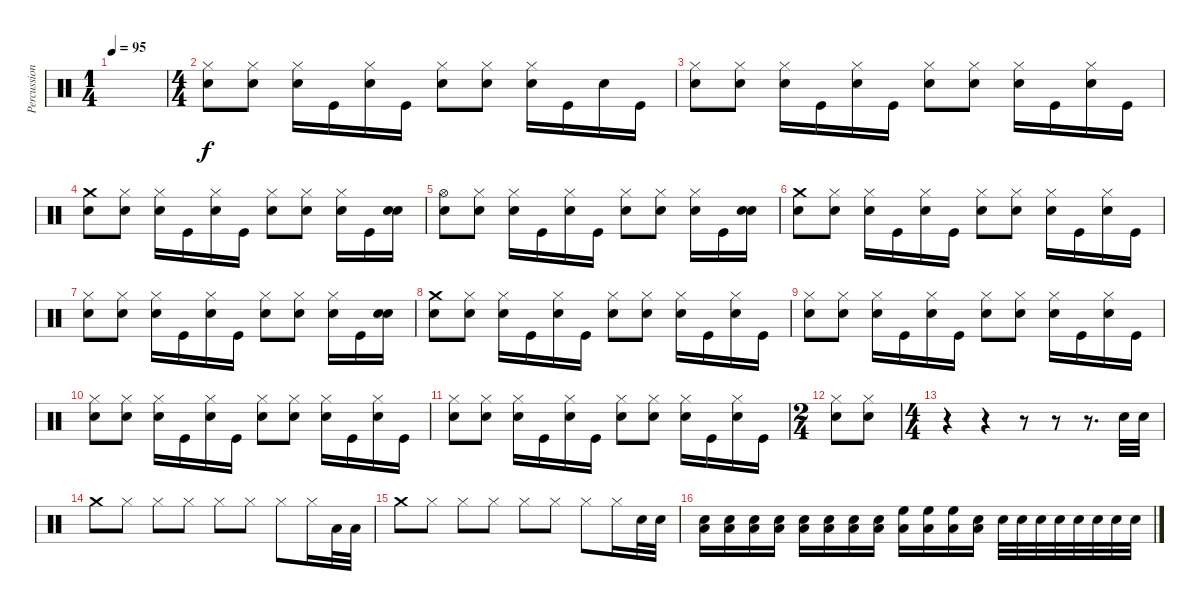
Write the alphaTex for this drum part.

\track ("Percussion" "Percussion") {instrument percussion}
\staff {score}
\articulation defaults
\ts (1 4)
\tempo 95
\clef neutral
\ks c
|
\ts (4 4)
("Hi-Hat (closed)" "Electric Snare (hit)").8{volume 3} ("Hi-Hat (closed)" "Electric Snare (hit)").8 ("Hi-Hat (closed)" "Electric Snare (hit)").16 "Kick (hit)".16 ("Hi-Hat (closed)" "Electric Snare (hit)").16 "Kick (hit)".16 ("Hi-Hat (closed)" "Electric Snare (hit)").8 ("Hi-Hat (closed)" "Electric Snare (hit)").8 ("Hi-Hat (closed)" "Electric Snare (hit)").16 "Kick (hit)".16 "Electric Snare (hit)".16 "Kick (hit)".16 |
("Hi-Hat (closed)" "Electric Snare (hit)").8 ("Hi-Hat (closed)" "Electric Snare (hit)").8 ("Hi-Hat (closed)" "Electric Snare (hit)").16 "Kick (hit)".16 ("Hi-Hat (closed)" "Electric Snare (hit)").16 "Kick (hit)".16 ("Hi-Hat (closed)" "Electric Snare (hit)").8 ("Hi-Hat (closed)" "Electric Snare (hit)").8 ("Hi-Hat (closed)" "Electric Snare (hit)").16 "Kick (hit)".16 ("Hi-Hat (closed)" "Electric Snare (hit)").16 "Kick (hit)".16 |
("Crash medium (hit)" "Electric Snare (hit)").8 ("Hi-Hat (closed)" "Electric Snare (hit)").8 ("Hi-Hat (closed)" "Electric Snare (hit)").16 "Kick (hit)".16 ("Hi-Hat (closed)" "Electric Snare (hit)").16 "Kick (hit)".16 ("Hi-Hat (closed)" "Electric Snare (hit)").8 ("Hi-Hat (closed)" "Electric Snare (hit)").8 ("Hi-Hat (closed)" "Electric Snare (hit)").16 "Kick (hit)".16 ("Electric Snare (hit)" "Electric Snare (hit)").16 |
("Hi-Hat (open)" "Electric Snare (hit)").8{volume 8} ("Hi-Hat (closed)" "Electric Snare (hit)").8 ("Hi-Hat (closed)" "Electric Snare (hit)").16 "Kick (hit)".16 ("Hi-Hat (closed)" "Electric Snare (hit)").16 "Kick (hit)".16 ("Hi-Hat (closed)" "Electric Snare (hit)").8 ("Hi-Hat (closed)" "Electric Snare (hit)").8 ("Hi-Hat (closed)" "Electric Snare (hit)").16 "Kick (hit)".16 ("Electric Snare (hit)" "Electric Snare (hit)").16 |
("Crash medium (hit)" "Electric Snare (hit)").8 ("Hi-Hat (closed)" "Electric Snare (hit)").8 ("Hi-Hat (closed)" "Electric Snare (hit)").16 "Kick (hit)".16 ("Hi-Hat (closed)" "Electric Snare (hit)").16 "Kick (hit)".16 ("Hi-Hat (closed)" "Electric Snare (hit)").8 ("Hi-Hat (closed)" "Electric Snare (hit)").8 ("Hi-Hat (closed)" "Electric Snare (hit)").16 "Kick (hit)".16 ("Hi-Hat (closed)" "Electric Snare (hit)").16 "Kick (hit)".16 |
("Hi-Hat (closed)" "Electric Snare (hit)").8 ("Hi-Hat (closed)" "Electric Snare (hit)").8 ("Hi-Hat (closed)" "Electric Snare (hit)").16 "Kick (hit)".16 ("Hi-Hat (closed)" "Electric Snare (hit)").16 "Kick (hit)".16 ("Hi-Hat (closed)" "Electric Snare (hit)").8 ("Hi-Hat (closed)" "Electric Snare (hit)").8 ("Hi-Hat (closed)" "Electric Snare (hit)").16 "Kick (hit)".16 ("Electric Snare (hit)" "Electric Snare (hit)").16 |
("Crash medium (hit)" "Electric Snare (hit)").8{volume 12} ("Hi-Hat (closed)" "Electric Snare (hit)").8 ("Hi-Hat (closed)" "Electric Snare (hit)").16 "Kick (hit)".16 ("Hi-Hat (closed)" "Electric Snare (hit)").16 "Kick (hit)".16 ("Hi-Hat (closed)" "Electric Snare (hit)").8 ("Hi-Hat (closed)" "Electric Snare (hit)").8 ("Hi-Hat (closed)" "Electric Snare (hit)").16 "Kick (hit)".16 ("Hi-Hat (closed)" "Electric Snare (hit)").16 "Kick (hit)".16 |
("Hi-Hat (closed)" "Electric Snare (hit)").8 ("Hi-Hat (closed)" "Electric Snare (hit)").8 ("Hi-Hat (closed)" "Electric Snare (hit)").16 "Kick (hit)".16 ("Hi-Hat (closed)" "Electric Snare (hit)").16 "Kick (hit)".16 ("Hi-Hat (closed)" "Electric Snare (hit)").8 ("Hi-Hat (closed)" "Electric Snare (hit)").8 ("Hi-Hat (closed)" "Electric Snare (hit)").16 "Kick (hit)".16 ("Hi-Hat (closed)" "Electric Snare (hit)").16 "Kick (hit)".16 |
("Hi-Hat (closed)" "Electric Snare (hit)").8{volume 16} ("Hi-Hat (closed)" "Electric Snare (hit)").8 ("Hi-Hat (closed)" "Electric Snare (hit)").16 "Kick (hit)".16 ("Hi-Hat (closed)" "Electric Snare (hit)").16 "Kick (hit)".16 ("Hi-Hat (closed)" "Electric Snare (hit)").8 ("Hi-Hat (closed)" "Electric Snare (hit)").8 ("Hi-Hat (closed)" "Electric Snare (hit)").16 "Kick (hit)".16 ("Hi-Hat (closed)" "Electric Snare (hit)").16 "Kick (hit)".16 |
("Hi-Hat (closed)" "Electric Snare (hit)").8 ("Hi-Hat (closed)" "Electric Snare (hit)").8 ("Hi-Hat (closed)" "Electric Snare (hit)").16 "Kick (hit)".16 ("Hi-Hat (closed)" "Electric Snare (hit)").16 "Kick (hit)".16 ("Hi-Hat (closed)" "Electric Snare (hit)").8 ("Hi-Hat (closed)" "Electric Snare (hit)").8 ("Hi-Hat (closed)" "Electric Snare (hit)").16 "Kick (hit)".16 ("Hi-Hat (closed)" "Electric Snare (hit)").16 "Kick (hit)".16 |
\ts (2 4)
("Hi-Hat (closed)" "Electric Snare (hit)").8 ("Hi-Hat (closed)" "Electric Snare (hit)").8 |
\ts (4 4)
r.4 r.4 r.8 r.8 r.8{d} "Electric Snare (hit)".32 "Electric Snare (hit)".32 |
"Crash medium (hit)".8 "Hi-Hat (closed)".8 "Hi-Hat (closed)".8 "Hi-Hat (closed)".8 "Hi-Hat (closed)".8 "Hi-Hat (closed)".8 "Hi-Hat (closed)".8 "Hi-Hat (closed)".16 "Low Tom (hit)".32 "Low Tom (hit)".32 |
"Crash medium (hit)".8 "Hi-Hat (closed)".8 "Hi-Hat (closed)".8 "Hi-Hat (closed)".8 "Hi-Hat (closed)".8 "Hi-Hat (closed)".8 "Hi-Hat (closed)".8 "Hi-Hat (closed)".16 "Electric Snare (hit)".32 "Electric Snare (hit)".32 |
("Low Floor Tom (hit)" "Electric Snare (hit)").16 ("Low Floor Tom (hit)" "Electric Snare (hit)").16 ("Low Floor Tom (hit)" "Electric Snare (hit)").16 ("Low Floor Tom (hit)" "Electric Snare (hit)").16 ("Low Floor Tom (hit)" "Electric Snare (hit)").16 ("Low Floor Tom (hit)" "Electric Snare (hit)").16 ("Low Floor Tom (hit)" "Electric Snare (hit)").16 ("Low Floor Tom (hit)" "Electric Snare (hit)").16 ("Low Floor Tom (hit)" "High Floor Tom (hit)").16 ("Low Floor Tom (hit)" "High Floor Tom (hit)").16 ("Low Floor Tom (hit)" "High Floor Tom (hit)").16 ("Low Floor Tom (hit)" "Electric Snare (hit)").16 "Electric Snare (hit)".32 "Electric Snare (hit)".32 "Electric Snare (hit)".32 "Electric Snare (hit)".32 "Electric Snare (hit)".32 "Electric Snare (hit)".32 "Electric Snare (hit)".32 "Electric Snare (hit)".32
